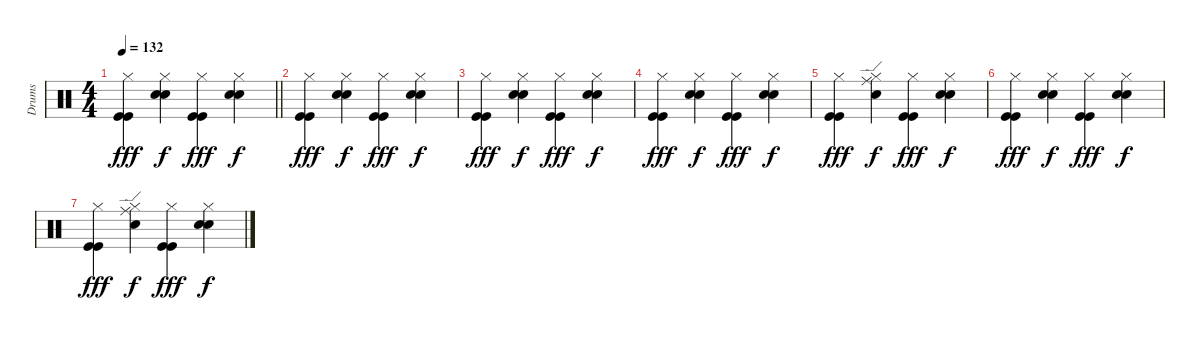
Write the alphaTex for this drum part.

\track ("Drums" "Drums") {instrument percussion}
\staff {score}
\articulation defaults
\ts (4 4)
\section ("" "")
\tempo 132
\clef neutral
\barLineRight lightlight
\ks c
("Hi-Hat (closed)" "Kick (hit)" "Kick (hit)").4{dy fff} ("Hi-Hat (closed)" "Hand Clap (hit)" "Hand Clap (hit)").4{dy f} ("Hi-Hat (closed)" "Kick (hit)" "Kick (hit)").4{dy fff} ("Hi-Hat (closed)" "Hand Clap (hit)" "Hand Clap (hit)").4{dy f} |
\section ("" "")
("Hi-Hat (closed)" "Kick (hit)" "Kick (hit)").4{dy fff} ("Hi-Hat (closed)" "Hand Clap (hit)" "Hand Clap (hit)").4{dy f} ("Hi-Hat (closed)" "Kick (hit)" "Kick (hit)").4{dy fff} ("Hi-Hat (closed)" "Hand Clap (hit)" "Hand Clap (hit)").4{dy f} |
("Hi-Hat (closed)" "Kick (hit)" "Kick (hit)").4{dy fff} ("Hi-Hat (closed)" "Hand Clap (hit)" "Hand Clap (hit)").4{dy f} ("Hi-Hat (closed)" "Kick (hit)" "Kick (hit)").4{dy fff} ("Hi-Hat (closed)" "Hand Clap (hit)" "Hand Clap (hit)").4{dy f} |
("Hi-Hat (closed)" "Kick (hit)" "Kick (hit)").4{dy fff} ("Hi-Hat (closed)" "Hand Clap (hit)" "Hand Clap (hit)").4{dy f} ("Hi-Hat (closed)" "Kick (hit)" "Kick (hit)").4{dy fff} ("Hi-Hat (closed)" "Hand Clap (hit)" "Hand Clap (hit)").4{dy f} |
("Hi-Hat (closed)" "Kick (hit)" "Kick (hit)").4{dy fff} ("Hi-Hat (closed)" "Ride (edge)" "Hand Clap (hit)").4{dy f} ("Hi-Hat (closed)" "Kick (hit)" "Kick (hit)").4{dy fff} ("Hi-Hat (closed)" "Hand Clap (hit)" "Hand Clap (hit)").4{dy f} |
("Hi-Hat (closed)" "Kick (hit)" "Kick (hit)").4{dy fff} ("Hi-Hat (closed)" "Hand Clap (hit)" "Hand Clap (hit)").4{dy f} ("Hi-Hat (closed)" "Kick (hit)" "Kick (hit)").4{dy fff} ("Hi-Hat (closed)" "Hand Clap (hit)" "Hand Clap (hit)").4{dy f} |
("Hi-Hat (closed)" "Kick (hit)" "Kick (hit)").4{dy fff} ("Hi-Hat (closed)" "Ride (edge)" "Hand Clap (hit)").4{dy f} ("Hi-Hat (closed)" "Kick (hit)" "Kick (hit)").4{dy fff} ("Hi-Hat (closed)" "Hand Clap (hit)" "Hand Clap (hit)").4{dy f}
